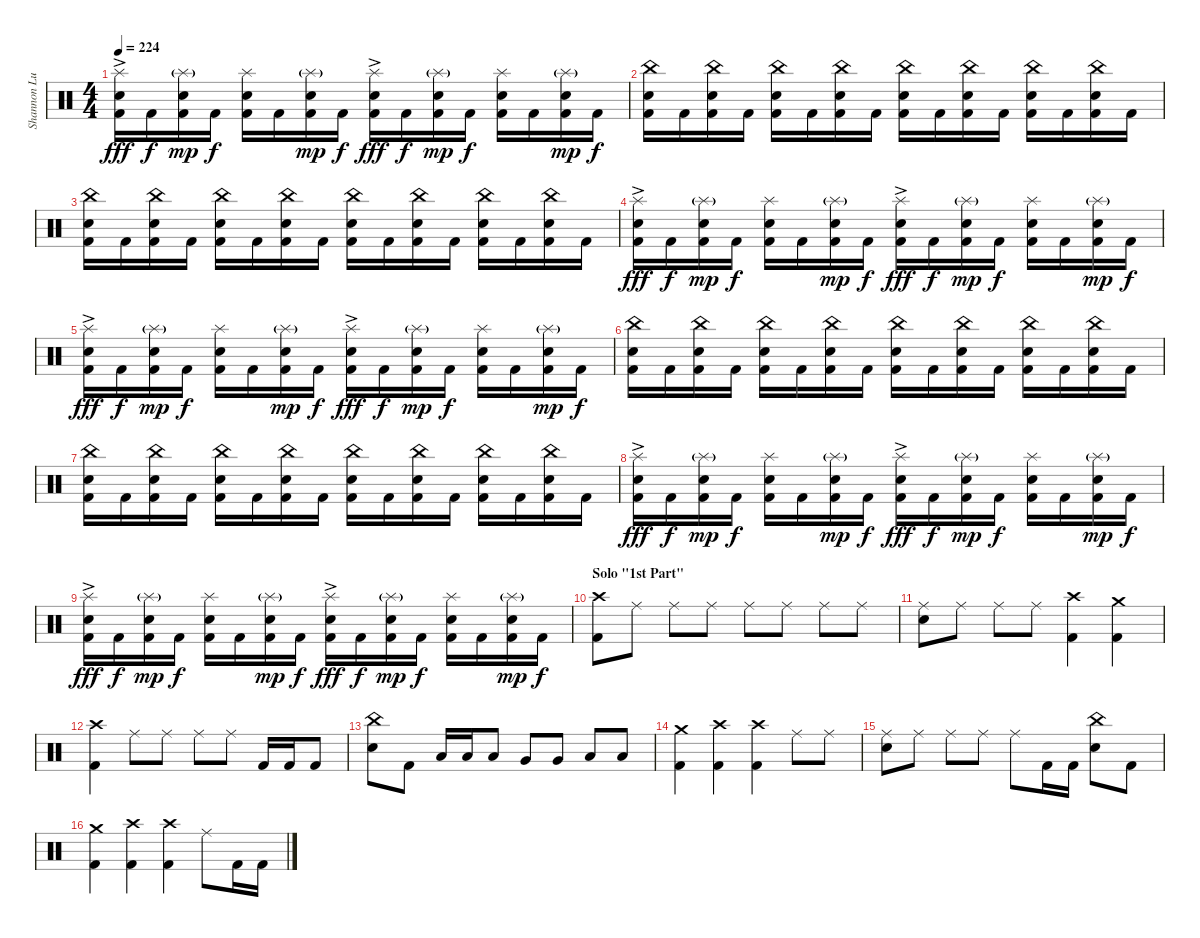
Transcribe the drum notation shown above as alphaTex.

\track ("Shannon Lucas (Drums)" "Shannon Lu") {instrument percussion}
\staff {score}
\articulation defaults
\ts (4 4)
\tempo 224
\clef neutral
\ks c
("Splash (hit)"{ac} "Snare (hit) 2" "Kick (hit) 2").16{dy fff} "Kick (hit) 2".16{dy f} ("Splash (hit)"{g} "Snare (hit) 2" "Kick (hit) 2").16{dy mp} "Kick (hit) 2".16{dy f} ("Splash (hit)" "Snare (hit) 2" "Kick (hit) 2").16 "Kick (hit) 2".16 ("Splash (hit)"{g} "Snare (hit) 2" "Kick (hit) 2").16{dy mp} "Kick (hit) 2".16{dy f} ("Splash (hit)"{ac} "Snare (hit) 2" "Kick (hit) 2").16{dy fff} "Kick (hit) 2".16{dy f} ("Splash (hit)"{g} "Snare (hit) 2" "Kick (hit) 2").16{dy mp} "Kick (hit) 2".16{dy f} ("Splash (hit)" "Snare (hit) 2" "Kick (hit) 2").16 "Kick (hit) 2".16 ("Splash (hit)"{g} "Snare (hit) 2" "Kick (hit) 2").16{dy mp} "Kick (hit) 2".16{dy f} |
("China (hit)" "Snare (hit) 2" "Kick (hit) 2").16{balance 4} "Kick (hit) 2".16 ("China (hit)" "Snare (hit) 2" "Kick (hit) 2").16 "Kick (hit) 2".16 ("China (hit)" "Snare (hit) 2" "Kick (hit) 2").16 "Kick (hit) 2".16 ("China (hit)" "Snare (hit) 2" "Kick (hit) 2").16 "Kick (hit) 2".16 ("China (hit)" "Snare (hit) 2" "Kick (hit) 2").16 "Kick (hit) 2".16 ("China (hit)" "Snare (hit) 2" "Kick (hit) 2").16 "Kick (hit) 2".16 ("China (hit)" "Snare (hit) 2" "Kick (hit) 2").16 "Kick (hit) 2".16 ("China (hit)" "Snare (hit) 2" "Kick (hit) 2").16 "Kick (hit) 2".16 |
("China (hit)" "Snare (hit) 2" "Kick (hit) 2").16 "Kick (hit) 2".16 ("China (hit)" "Snare (hit) 2" "Kick (hit) 2").16 "Kick (hit) 2".16 ("China (hit)" "Snare (hit) 2" "Kick (hit) 2").16 "Kick (hit) 2".16 ("China (hit)" "Snare (hit) 2" "Kick (hit) 2").16 "Kick (hit) 2".16 ("China (hit)" "Snare (hit) 2" "Kick (hit) 2").16 "Kick (hit) 2".16 ("China (hit)" "Snare (hit) 2" "Kick (hit) 2").16 "Kick (hit) 2".16 ("China (hit)" "Snare (hit) 2" "Kick (hit) 2").16 "Kick (hit) 2".16 ("China (hit)" "Snare (hit) 2" "Kick (hit) 2").16 "Kick (hit) 2".16 |
("Splash (hit)"{ac} "Snare (hit) 2" "Kick (hit) 2").16{dy fff balance 12} "Kick (hit) 2".16{dy f} ("Splash (hit)"{g} "Snare (hit) 2" "Kick (hit) 2").16{dy mp} "Kick (hit) 2".16{dy f} ("Splash (hit)" "Snare (hit) 2" "Kick (hit) 2").16 "Kick (hit) 2".16 ("Splash (hit)"{g} "Snare (hit) 2" "Kick (hit) 2").16{dy mp} "Kick (hit) 2".16{dy f} ("Splash (hit)"{ac} "Snare (hit) 2" "Kick (hit) 2").16{dy fff} "Kick (hit) 2".16{dy f} ("Splash (hit)"{g} "Snare (hit) 2" "Kick (hit) 2").16{dy mp} "Kick (hit) 2".16{dy f} ("Splash (hit)" "Snare (hit) 2" "Kick (hit) 2").16 "Kick (hit) 2".16 ("Splash (hit)"{g} "Snare (hit) 2" "Kick (hit) 2").16{dy mp} "Kick (hit) 2".16{dy f} |
("Splash (hit)"{ac} "Snare (hit) 2" "Kick (hit) 2").16{dy fff} "Kick (hit) 2".16{dy f} ("Splash (hit)"{g} "Snare (hit) 2" "Kick (hit) 2").16{dy mp} "Kick (hit) 2".16{dy f} ("Splash (hit)" "Snare (hit) 2" "Kick (hit) 2").16 "Kick (hit) 2".16 ("Splash (hit)"{g} "Snare (hit) 2" "Kick (hit) 2").16{dy mp} "Kick (hit) 2".16{dy f} ("Splash (hit)"{ac} "Snare (hit) 2" "Kick (hit) 2").16{dy fff} "Kick (hit) 2".16{dy f} ("Splash (hit)"{g} "Snare (hit) 2" "Kick (hit) 2").16{dy mp} "Kick (hit) 2".16{dy f} ("Splash (hit)" "Snare (hit) 2" "Kick (hit) 2").16 "Kick (hit) 2".16 ("Splash (hit)"{g} "Snare (hit) 2" "Kick (hit) 2").16{dy mp} "Kick (hit) 2".16{dy f} |
("China (hit)" "Snare (hit) 2" "Kick (hit) 2").16{balance 4} "Kick (hit) 2".16 ("China (hit)" "Snare (hit) 2" "Kick (hit) 2").16 "Kick (hit) 2".16 ("China (hit)" "Snare (hit) 2" "Kick (hit) 2").16 "Kick (hit) 2".16 ("China (hit)" "Snare (hit) 2" "Kick (hit) 2").16 "Kick (hit) 2".16 ("China (hit)" "Snare (hit) 2" "Kick (hit) 2").16 "Kick (hit) 2".16 ("China (hit)" "Snare (hit) 2" "Kick (hit) 2").16 "Kick (hit) 2".16 ("China (hit)" "Snare (hit) 2" "Kick (hit) 2").16 "Kick (hit) 2".16 ("China (hit)" "Snare (hit) 2" "Kick (hit) 2").16 "Kick (hit) 2".16 |
("China (hit)" "Snare (hit) 2" "Kick (hit) 2").16 "Kick (hit) 2".16 ("China (hit)" "Snare (hit) 2" "Kick (hit) 2").16 "Kick (hit) 2".16 ("China (hit)" "Snare (hit) 2" "Kick (hit) 2").16 "Kick (hit) 2".16 ("China (hit)" "Snare (hit) 2" "Kick (hit) 2").16 "Kick (hit) 2".16 ("China (hit)" "Snare (hit) 2" "Kick (hit) 2").16 "Kick (hit) 2".16 ("China (hit)" "Snare (hit) 2" "Kick (hit) 2").16 "Kick (hit) 2".16 ("China (hit)" "Snare (hit) 2" "Kick (hit) 2").16 "Kick (hit) 2".16 ("China (hit)" "Snare (hit) 2" "Kick (hit) 2").16 "Kick (hit) 2".16 |
("Splash (hit)"{ac} "Snare (hit) 2" "Kick (hit) 2").16{dy fff balance 12} "Kick (hit) 2".16{dy f} ("Splash (hit)"{g} "Snare (hit) 2" "Kick (hit) 2").16{dy mp} "Kick (hit) 2".16{dy f} ("Splash (hit)" "Snare (hit) 2" "Kick (hit) 2").16 "Kick (hit) 2".16 ("Splash (hit)"{g} "Snare (hit) 2" "Kick (hit) 2").16{dy mp} "Kick (hit) 2".16{dy f} ("Splash (hit)"{ac} "Snare (hit) 2" "Kick (hit) 2").16{dy fff} "Kick (hit) 2".16{dy f} ("Splash (hit)"{g} "Snare (hit) 2" "Kick (hit) 2").16{dy mp} "Kick (hit) 2".16{dy f} ("Splash (hit)" "Snare (hit) 2" "Kick (hit) 2").16 "Kick (hit) 2".16 ("Splash (hit)"{g} "Snare (hit) 2" "Kick (hit) 2").16{dy mp} "Kick (hit) 2".16{dy f} |
("Splash (hit)"{ac} "Snare (hit) 2" "Kick (hit) 2").16{dy fff} "Kick (hit) 2".16{dy f} ("Splash (hit)"{g} "Snare (hit) 2" "Kick (hit) 2").16{dy mp} "Kick (hit) 2".16{dy f} ("Splash (hit)" "Snare (hit) 2" "Kick (hit) 2").16 "Kick (hit) 2".16 ("Splash (hit)"{g} "Snare (hit) 2" "Kick (hit) 2").16{dy mp} "Kick (hit) 2".16{dy f} ("Splash (hit)"{ac} "Snare (hit) 2" "Kick (hit) 2").16{dy fff} "Kick (hit) 2".16{dy f} ("Splash (hit)"{g} "Snare (hit) 2" "Kick (hit) 2").16{dy mp} "Kick (hit) 2".16{dy f} ("Splash (hit)" "Snare (hit) 2" "Kick (hit) 2").16 "Kick (hit) 2".16 ("Splash (hit)"{g} "Snare (hit) 2" "Kick (hit) 2").16{dy mp} "Kick (hit) 2".16{dy f} |
\section ("" "Solo \"1st Part\"")
("Crash high (hit)" "Kick (hit) 2").8 "Ride (middle)".8 "Ride (middle)".8 "Ride (middle)".8 "Ride (middle)".8 "Ride (middle)".8 "Ride (middle)".8 "Ride (middle)".8 |
("Snare (hit) 2" "Ride (middle)").8 "Ride (middle)".8 "Ride (middle)".8 "Ride (middle)".8 ("Crash high (hit)" "Kick (hit) 2").4 ("Crash medium (hit)" "Kick (hit) 2").4 |
("Crash high (hit)" "Kick (hit) 2").4 "Ride (middle)".8 "Ride (middle)".8 "Ride (middle)".8 "Ride (middle)".8 "Kick (hit) 2".16 "Kick (hit) 2".16 "Kick (hit) 2".8 |
("China (hit)" "Snare (hit) 2").8 "Kick (hit) 2".8 "Low Tom (hit)".16 "Low Tom (hit)".16 "Low Tom (hit)".8 "Very Low Tom (hit)".8 "Very Low Tom (hit)".8 "Low Floor Tom (hit)".8 "Low Floor Tom (hit)".8 |
("Crash medium (hit)" "Kick (hit) 2").4 ("Crash high (hit)" "Kick (hit) 2").4 ("Crash high (hit)" "Kick (hit) 2").4 "Ride (middle)".8 "Ride (middle)".8 |
("Ride (middle)" "Snare (hit) 2").8 "Ride (middle)".8 "Ride (middle)".8 "Ride (middle)".8 "Ride (middle)".8 "Kick (hit) 2".16 "Kick (hit) 2".16 ("China (hit)" "Snare (hit) 2").8 "Kick (hit) 2".8 |
("Crash medium (hit)" "Kick (hit) 2").4 ("Crash high (hit)" "Kick (hit) 2").4 ("Crash high (hit)" "Kick (hit) 2").4 "Ride (middle)".8 "Kick (hit) 2".16 "Kick (hit) 2".16
